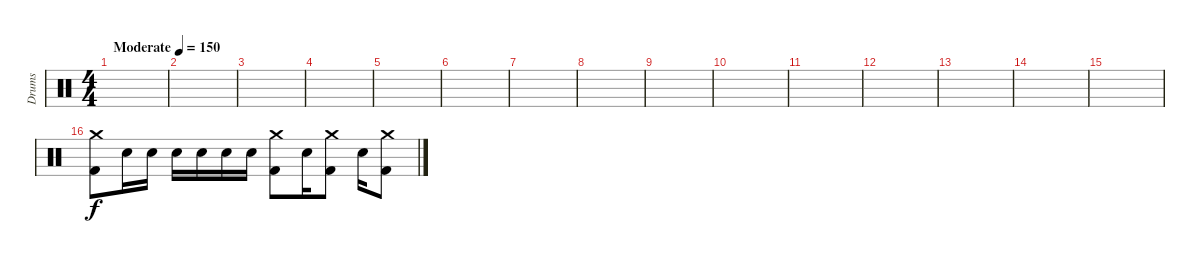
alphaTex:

\track ("Drums" "Drums") {instrument percussion}
\staff {score}
\articulation defaults
\ts (4 4)
\tempo (150 "Moderate")
\clef neutral
\ks c
|
|
|
|
|
|
|
|
|
|
|
|
|
|
|
("Crash medium (hit)" "Kick (hit) 2").8 "Electric Snare (hit)".16 "Electric Snare (hit)".16 "Electric Snare (hit)".16 "Electric Snare (hit)".16 "Electric Snare (hit)".16 "Electric Snare (hit)".16 ("Crash medium (hit)" "Kick (hit) 2").8 "Electric Snare (hit)".16 ("Crash medium (hit)" "Kick (hit) 2").8 "Electric Snare (hit)".16 ("Crash medium (hit)" "Kick (hit) 2").8
